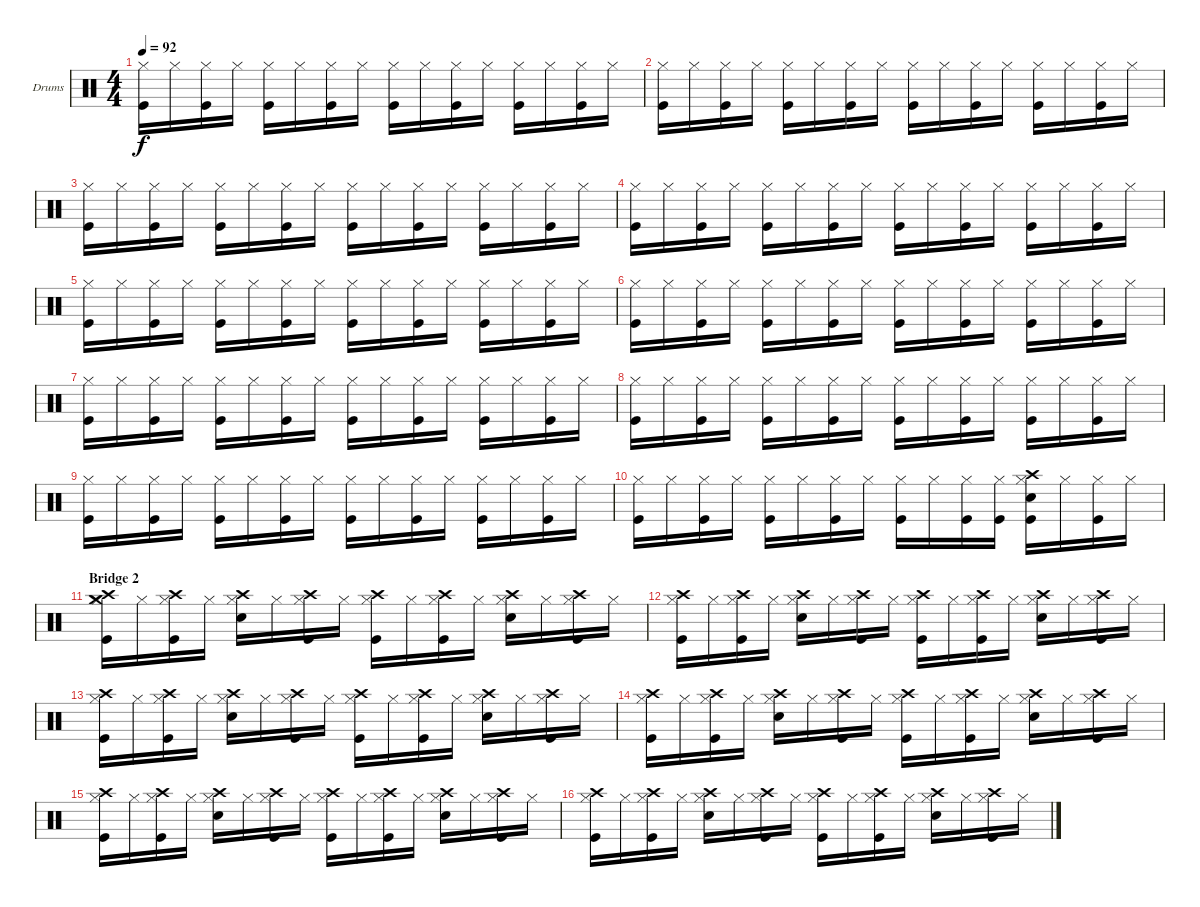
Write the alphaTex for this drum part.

\bracketExtendMode groupsimilarinstruments
\firstSystemTrackNameOrientation horizontal
\otherSystemsTrackNameOrientation horizontal
\track ("Drumkit" "Drums") {instrument percussion}
\staff {score}
\articulation defaults
\ts (4 4)
\tempo 92
\clef neutral
\ks c
("Hi-Hat (closed)" "Kick (hit)").16{dy f} "Hi-Hat (closed)".16 ("Hi-Hat (closed)" "Kick (hit)").16 "Hi-Hat (closed)".16 ("Hi-Hat (closed)" "Kick (hit)").16 "Hi-Hat (closed)".16 ("Hi-Hat (closed)" "Kick (hit)").16 "Hi-Hat (closed)".16 ("Hi-Hat (closed)" "Kick (hit)").16 "Hi-Hat (closed)".16 ("Hi-Hat (closed)" "Kick (hit)").16 "Hi-Hat (closed)".16 ("Hi-Hat (closed)" "Kick (hit)").16 "Hi-Hat (closed)".16 ("Hi-Hat (closed)" "Kick (hit)").16 "Hi-Hat (closed)".16 |
("Hi-Hat (closed)" "Kick (hit)").16 "Hi-Hat (closed)".16 ("Hi-Hat (closed)" "Kick (hit)").16 "Hi-Hat (closed)".16 ("Hi-Hat (closed)" "Kick (hit)").16 "Hi-Hat (closed)".16 ("Hi-Hat (closed)" "Kick (hit)").16 "Hi-Hat (closed)".16 ("Hi-Hat (closed)" "Kick (hit)").16 "Hi-Hat (closed)".16 ("Hi-Hat (closed)" "Kick (hit)").16 "Hi-Hat (closed)".16 ("Hi-Hat (closed)" "Kick (hit)").16 "Hi-Hat (closed)".16 ("Hi-Hat (closed)" "Kick (hit)").16 "Hi-Hat (closed)".16 |
("Hi-Hat (closed)" "Kick (hit)").16 "Hi-Hat (closed)".16 ("Hi-Hat (closed)" "Kick (hit)").16 "Hi-Hat (closed)".16 ("Hi-Hat (closed)" "Kick (hit)").16 "Hi-Hat (closed)".16 ("Hi-Hat (closed)" "Kick (hit)").16 "Hi-Hat (closed)".16 ("Hi-Hat (closed)" "Kick (hit)").16 "Hi-Hat (closed)".16 ("Hi-Hat (closed)" "Kick (hit)").16 "Hi-Hat (closed)".16 ("Hi-Hat (closed)" "Kick (hit)").16 "Hi-Hat (closed)".16 ("Hi-Hat (closed)" "Kick (hit)").16 "Hi-Hat (closed)".16 |
("Hi-Hat (closed)" "Kick (hit)").16 "Hi-Hat (closed)".16 ("Hi-Hat (closed)" "Kick (hit)").16 "Hi-Hat (closed)".16 ("Hi-Hat (closed)" "Kick (hit)").16 "Hi-Hat (closed)".16 ("Hi-Hat (closed)" "Kick (hit)").16 "Hi-Hat (closed)".16 ("Hi-Hat (closed)" "Kick (hit)").16 "Hi-Hat (closed)".16 ("Hi-Hat (closed)" "Kick (hit)").16 "Hi-Hat (closed)".16 ("Hi-Hat (closed)" "Kick (hit)").16 "Hi-Hat (closed)".16 ("Hi-Hat (closed)" "Kick (hit)").16 "Hi-Hat (closed)".16 |
("Hi-Hat (closed)" "Kick (hit)").16 "Hi-Hat (closed)".16 ("Hi-Hat (closed)" "Kick (hit)").16 "Hi-Hat (closed)".16 ("Hi-Hat (closed)" "Kick (hit)").16 "Hi-Hat (closed)".16 ("Hi-Hat (closed)" "Kick (hit)").16 "Hi-Hat (closed)".16 ("Hi-Hat (closed)" "Kick (hit)").16 "Hi-Hat (closed)".16 ("Hi-Hat (closed)" "Kick (hit)").16 "Hi-Hat (closed)".16 ("Hi-Hat (closed)" "Kick (hit)").16 "Hi-Hat (closed)".16 ("Hi-Hat (closed)" "Kick (hit)").16 "Hi-Hat (closed)".16 |
("Hi-Hat (closed)" "Kick (hit)").16 "Hi-Hat (closed)".16 ("Hi-Hat (closed)" "Kick (hit)").16 "Hi-Hat (closed)".16 ("Hi-Hat (closed)" "Kick (hit)").16 "Hi-Hat (closed)".16 ("Hi-Hat (closed)" "Kick (hit)").16 "Hi-Hat (closed)".16 ("Hi-Hat (closed)" "Kick (hit)").16 "Hi-Hat (closed)".16 ("Hi-Hat (closed)" "Kick (hit)").16 "Hi-Hat (closed)".16 ("Hi-Hat (closed)" "Kick (hit)").16 "Hi-Hat (closed)".16 ("Hi-Hat (closed)" "Kick (hit)").16 "Hi-Hat (closed)".16 |
("Hi-Hat (closed)" "Kick (hit)").16 "Hi-Hat (closed)".16 ("Hi-Hat (closed)" "Kick (hit)").16 "Hi-Hat (closed)".16 ("Hi-Hat (closed)" "Kick (hit)").16 "Hi-Hat (closed)".16 ("Hi-Hat (closed)" "Kick (hit)").16 "Hi-Hat (closed)".16 ("Hi-Hat (closed)" "Kick (hit)").16 "Hi-Hat (closed)".16 ("Hi-Hat (closed)" "Kick (hit)").16 "Hi-Hat (closed)".16 ("Hi-Hat (closed)" "Kick (hit)").16 "Hi-Hat (closed)".16 ("Hi-Hat (closed)" "Kick (hit)").16 "Hi-Hat (closed)".16 |
("Hi-Hat (closed)" "Kick (hit)").16 "Hi-Hat (closed)".16 ("Hi-Hat (closed)" "Kick (hit)").16 "Hi-Hat (closed)".16 ("Hi-Hat (closed)" "Kick (hit)").16 "Hi-Hat (closed)".16 ("Hi-Hat (closed)" "Kick (hit)").16 "Hi-Hat (closed)".16 ("Hi-Hat (closed)" "Kick (hit)").16 "Hi-Hat (closed)".16 ("Hi-Hat (closed)" "Kick (hit)").16 "Hi-Hat (closed)".16 ("Hi-Hat (closed)" "Kick (hit)").16 "Hi-Hat (closed)".16 ("Hi-Hat (closed)" "Kick (hit)").16 "Hi-Hat (closed)".16 |
("Hi-Hat (closed)" "Kick (hit)").16 "Hi-Hat (closed)".16 ("Hi-Hat (closed)" "Kick (hit)").16 "Hi-Hat (closed)".16 ("Hi-Hat (closed)" "Kick (hit)").16 "Hi-Hat (closed)".16 ("Hi-Hat (closed)" "Kick (hit)").16 "Hi-Hat (closed)".16 ("Hi-Hat (closed)" "Kick (hit)").16 "Hi-Hat (closed)".16 ("Hi-Hat (closed)" "Kick (hit)").16 "Hi-Hat (closed)".16 ("Hi-Hat (closed)" "Kick (hit)").16 "Hi-Hat (closed)".16 ("Hi-Hat (closed)" "Kick (hit)").16 "Hi-Hat (closed)".16 |
("Hi-Hat (closed)" "Kick (hit)").16 "Hi-Hat (closed)".16 ("Hi-Hat (closed)" "Kick (hit)").16 "Hi-Hat (closed)".16 ("Hi-Hat (closed)" "Kick (hit)").16 "Hi-Hat (closed)".16 ("Hi-Hat (closed)" "Kick (hit)").16 "Hi-Hat (closed)".16 ("Hi-Hat (closed)" "Kick (hit)").16 "Hi-Hat (closed)".16 ("Hi-Hat (closed)" "Kick (hit)").16 ("Hi-Hat (closed)" "Kick (hit)").16 ("Hi-Hat (closed)" "Crash high (hit)" "Snare (hit) 2" "Kick (hit)").16 "Hi-Hat (closed)".16 ("Hi-Hat (closed)" "Kick (hit)").16 "Hi-Hat (closed)".16 |
\section ("" "Bridge 2")
("Hi-Hat (closed)" "Crash high (hit)" "Crash medium (hit)" "Kick (hit)").16 "Hi-Hat (closed)".16 ("Hi-Hat (closed)" "Crash high (hit)" "Kick (hit)").16 "Hi-Hat (closed)".16 ("Hi-Hat (closed)" "Crash high (hit)" "Snare (hit) 2").16 "Hi-Hat (closed)".16 ("Hi-Hat (closed)" "Crash high (hit)" "Kick (hit)").16 "Hi-Hat (closed)".16 ("Hi-Hat (closed)" "Crash high (hit)" "Kick (hit)").16 "Hi-Hat (closed)".16 ("Hi-Hat (closed)" "Crash high (hit)" "Kick (hit)").16 "Hi-Hat (closed)".16 ("Hi-Hat (closed)" "Crash high (hit)" "Snare (hit) 2").16 "Hi-Hat (closed)".16 ("Hi-Hat (closed)" "Crash high (hit)" "Kick (hit)").16 "Hi-Hat (closed)".16 |
("Hi-Hat (closed)" "Crash high (hit)" "Kick (hit)").16 "Hi-Hat (closed)".16 ("Hi-Hat (closed)" "Crash high (hit)" "Kick (hit)").16 "Hi-Hat (closed)".16 ("Hi-Hat (closed)" "Crash high (hit)" "Snare (hit) 2").16 "Hi-Hat (closed)".16 ("Hi-Hat (closed)" "Crash high (hit)" "Kick (hit)").16 "Hi-Hat (closed)".16 ("Hi-Hat (closed)" "Crash high (hit)" "Kick (hit)").16 "Hi-Hat (closed)".16 ("Hi-Hat (closed)" "Crash high (hit)" "Kick (hit)").16 "Hi-Hat (closed)".16 ("Hi-Hat (closed)" "Crash high (hit)" "Snare (hit) 2").16 "Hi-Hat (closed)".16 ("Hi-Hat (closed)" "Crash high (hit)" "Kick (hit)").16 "Hi-Hat (closed)".16 |
("Hi-Hat (closed)" "Crash high (hit)" "Kick (hit)").16 "Hi-Hat (closed)".16 ("Hi-Hat (closed)" "Crash high (hit)" "Kick (hit)").16 "Hi-Hat (closed)".16 ("Hi-Hat (closed)" "Crash high (hit)" "Snare (hit) 2").16 "Hi-Hat (closed)".16 ("Hi-Hat (closed)" "Crash high (hit)" "Kick (hit)").16 "Hi-Hat (closed)".16 ("Hi-Hat (closed)" "Crash high (hit)" "Kick (hit)").16 "Hi-Hat (closed)".16 ("Hi-Hat (closed)" "Crash high (hit)" "Kick (hit)").16 "Hi-Hat (closed)".16 ("Hi-Hat (closed)" "Crash high (hit)" "Snare (hit) 2").16 "Hi-Hat (closed)".16 ("Hi-Hat (closed)" "Crash high (hit)" "Kick (hit)").16 "Hi-Hat (closed)".16 |
("Hi-Hat (closed)" "Crash high (hit)" "Kick (hit)").16 "Hi-Hat (closed)".16 ("Hi-Hat (closed)" "Crash high (hit)" "Kick (hit)").16 "Hi-Hat (closed)".16 ("Hi-Hat (closed)" "Crash high (hit)" "Snare (hit) 2").16 "Hi-Hat (closed)".16 ("Hi-Hat (closed)" "Crash high (hit)" "Kick (hit)").16 "Hi-Hat (closed)".16 ("Hi-Hat (closed)" "Crash high (hit)" "Kick (hit)").16 "Hi-Hat (closed)".16 ("Hi-Hat (closed)" "Crash high (hit)" "Kick (hit)").16 "Hi-Hat (closed)".16 ("Hi-Hat (closed)" "Crash high (hit)" "Snare (hit) 2").16 "Hi-Hat (closed)".16 ("Hi-Hat (closed)" "Crash high (hit)" "Kick (hit)").16 "Hi-Hat (closed)".16 |
("Hi-Hat (closed)" "Crash high (hit)" "Kick (hit)").16 "Hi-Hat (closed)".16 ("Hi-Hat (closed)" "Crash high (hit)" "Kick (hit)").16 "Hi-Hat (closed)".16 ("Hi-Hat (closed)" "Crash high (hit)" "Snare (hit) 2").16 "Hi-Hat (closed)".16 ("Hi-Hat (closed)" "Crash high (hit)" "Kick (hit)").16 "Hi-Hat (closed)".16 ("Hi-Hat (closed)" "Crash high (hit)" "Kick (hit)").16 "Hi-Hat (closed)".16 ("Hi-Hat (closed)" "Crash high (hit)" "Kick (hit)").16 "Hi-Hat (closed)".16 ("Hi-Hat (closed)" "Crash high (hit)" "Snare (hit) 2").16 "Hi-Hat (closed)".16 ("Hi-Hat (closed)" "Crash high (hit)" "Kick (hit)").16 "Hi-Hat (closed)".16 |
("Hi-Hat (closed)" "Crash high (hit)" "Kick (hit)").16 "Hi-Hat (closed)".16 ("Hi-Hat (closed)" "Crash high (hit)" "Kick (hit)").16 "Hi-Hat (closed)".16 ("Hi-Hat (closed)" "Crash high (hit)" "Snare (hit) 2").16 "Hi-Hat (closed)".16 ("Hi-Hat (closed)" "Crash high (hit)" "Kick (hit)").16 "Hi-Hat (closed)".16 ("Hi-Hat (closed)" "Crash high (hit)" "Kick (hit)").16 "Hi-Hat (closed)".16 ("Hi-Hat (closed)" "Crash high (hit)" "Kick (hit)").16 "Hi-Hat (closed)".16 ("Hi-Hat (closed)" "Crash high (hit)" "Snare (hit) 2").16 "Hi-Hat (closed)".16 ("Hi-Hat (closed)" "Crash high (hit)" "Kick (hit)").16 "Hi-Hat (closed)".16
